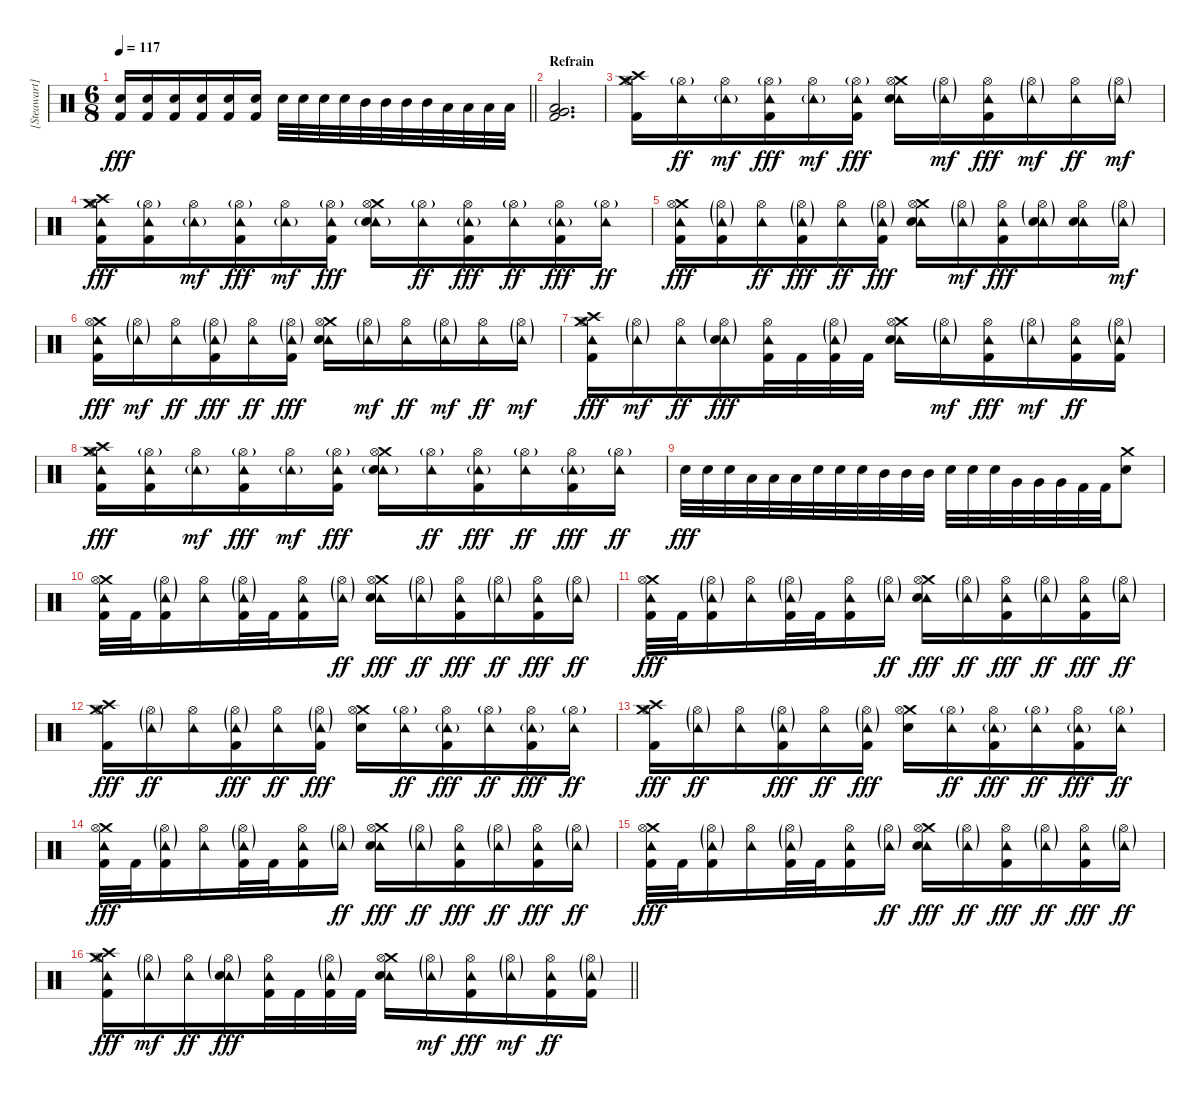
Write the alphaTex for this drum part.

\track ("[Steawart] Drums" "[Steawart]") {instrument percussion}
\staff {score}
\articulation defaults
\ts (6 8)
\tempo 117
\clef neutral
\barLineRight lightlight
\ks c
("Electric Snare (hit)" "Kick (hit) 2").16{dy fff} ("Electric Snare (hit)" "Kick (hit) 2").16 ("Electric Snare (hit)" "Kick (hit) 2").16 ("Electric Snare (hit)" "Kick (hit) 2").16 ("Electric Snare (hit)" "Kick (hit) 2").16 ("Electric Snare (hit)" "Kick (hit) 2").16 "Electric Snare (hit)".32 "Electric Snare (hit)".32 "Electric Snare (hit)".32 "Electric Snare (hit)".32 "Mid Tom (hit)".32 "Mid Tom (hit)".32 "Mid Tom (hit)".32 "Mid Tom (hit)".32 "Low Tom (hit)".32 "Low Tom (hit)".32 "Low Tom (hit)".32 "Low Tom (hit)".32 |
\section ("" "Refrain ")
("Low Tom (hit)" "Very Low Tom (hit)" "Kick (hit) 2").2{d} |
("Crash medium (hit)" "Hi-Hat (open)" "Crash high (hit)" "Kick (hit) 2").16 ("Hi-Hat (open)"{g} "Tambourine (hit)").16{dy ff} ("Hi-Hat (open)" "Tambourine (hit)"{g}).16{dy mf} ("Hi-Hat (open)"{g} "Tambourine (hit)" "Kick (hit) 2").16{dy fff} ("Hi-Hat (open)" "Tambourine (hit)"{g}).16{dy mf} ("Hi-Hat (open)"{g} "Tambourine (hit)" "Kick (hit) 2").16{dy fff} ("Crash medium (hit)" "Hi-Hat (open)" "Tambourine (hit)" "Electric Snare (hit)").16 ("Hi-Hat (open)"{g} "Tambourine (hit)"{g}).16{dy mf} ("Hi-Hat (open)" "Tambourine (hit)" "Kick (hit) 2").16{dy fff} ("Hi-Hat (open)"{g} "Tambourine (hit)"{g}).16{dy mf} ("Hi-Hat (open)" "Tambourine (hit)").16{dy ff} ("Hi-Hat (open)"{g} "Tambourine (hit)"{g}).16{dy mf} |
("Crash medium (hit)" "Hi-Hat (open)" "Crash high (hit)" "Tambourine (hit)" "Kick (hit) 2").16{dy fff} ("Hi-Hat (open)"{g} "Tambourine (hit)" "Kick (hit) 2").16 ("Hi-Hat (open)" "Tambourine (hit)"{g}).16{dy mf} ("Hi-Hat (open)"{g} "Tambourine (hit)" "Kick (hit) 2").16{dy fff} ("Hi-Hat (open)" "Tambourine (hit)"{g}).16{dy mf} ("Hi-Hat (open)"{g} "Tambourine (hit)" "Kick (hit) 2").16{dy fff} ("Crash medium (hit)" "Hi-Hat (open)" "Tambourine (hit)"{g} "Electric Snare (hit)").16 ("Hi-Hat (open)"{g} "Tambourine (hit)").16{dy ff} ("Hi-Hat (open)" "Tambourine (hit)"{g} "Kick (hit) 2").16{dy fff} ("Hi-Hat (open)"{g} "Tambourine (hit)").16{dy ff} ("Hi-Hat (open)" "Tambourine (hit)"{g} "Kick (hit) 2").16{dy fff} ("Hi-Hat (open)"{g} "Tambourine (hit)").16{dy ff} |
("Crash medium (hit)" "Hi-Hat (open)" "Tambourine (hit)" "Kick (hit) 2").16{dy fff} ("Hi-Hat (open)"{g} "Tambourine (hit)"{g} "Kick (hit) 2").16 ("Hi-Hat (open)" "Tambourine (hit)").16{dy ff} ("Hi-Hat (open)"{g} "Tambourine (hit)"{g} "Kick (hit) 2").16{dy fff} ("Hi-Hat (open)" "Tambourine (hit)").16{dy ff} ("Hi-Hat (open)"{g} "Tambourine (hit)"{g} "Kick (hit) 2").16{dy fff} ("Crash medium (hit)" "Hi-Hat (open)" "Tambourine (hit)" "Electric Snare (hit)").16 ("Hi-Hat (open)"{g} "Tambourine (hit)"{g}).16{dy mf} ("Hi-Hat (open)" "Tambourine (hit)" "Kick (hit) 2").16{dy fff} ("Hi-Hat (open)"{g} "Tambourine (hit)"{g} "Electric Snare (hit)").16 ("Hi-Hat (open)" "Tambourine (hit)" "Electric Snare (hit)").16 ("Hi-Hat (open)"{g} "Tambourine (hit)"{g}).16{dy mf} |
("Crash medium (hit)" "Hi-Hat (open)" "Tambourine (hit)" "Kick (hit) 2").16{dy fff} ("Hi-Hat (open)"{g} "Tambourine (hit)"{g}).16{dy mf} ("Hi-Hat (open)" "Tambourine (hit)").16{dy ff} ("Hi-Hat (open)"{g} "Tambourine (hit)"{g} "Kick (hit) 2").16{dy fff} ("Hi-Hat (open)" "Tambourine (hit)").16{dy ff} ("Hi-Hat (open)"{g} "Tambourine (hit)"{g} "Kick (hit) 2").16{dy fff} ("Crash medium (hit)" "Hi-Hat (open)" "Tambourine (hit)" "Electric Snare (hit)").16 ("Hi-Hat (open)"{g} "Tambourine (hit)"{g}).16{dy mf} ("Hi-Hat (open)" "Tambourine (hit)").16{dy ff} ("Hi-Hat (open)"{g} "Tambourine (hit)"{g}).16{dy mf} ("Hi-Hat (open)" "Tambourine (hit)").16{dy ff} ("Hi-Hat (open)"{g} "Tambourine (hit)"{g}).16{dy mf} |
("Crash medium (hit)" "Hi-Hat (open)" "Crash high (hit)" "Tambourine (hit)" "Kick (hit) 2").16{dy fff} ("Hi-Hat (open)"{g} "Tambourine (hit)"{g}).16{dy mf} ("Hi-Hat (open)" "Tambourine (hit)").16{dy ff} ("Hi-Hat (open)"{g} "Tambourine (hit)"{g} "Electric Snare (hit)").16{dy fff} ("Hi-Hat (open)" "Tambourine (hit)" "Kick (hit) 2").32 "Kick (hit) 2".32 ("Hi-Hat (open)"{g} "Tambourine (hit)"{g} "Kick (hit) 2").32 "Kick (hit) 2".32 ("Crash medium (hit)" "Hi-Hat (open)" "Tambourine (hit)" "Electric Snare (hit)").16 ("Hi-Hat (open)"{g} "Tambourine (hit)"{g}).16{dy mf} ("Hi-Hat (open)" "Tambourine (hit)" "Kick (hit) 2").16{dy fff} ("Hi-Hat (open)"{g} "Tambourine (hit)"{g}).16{dy mf} ("Hi-Hat (open)" "Tambourine (hit)" "Kick (hit) 2").16{dy ff} ("Hi-Hat (open)"{g} "Tambourine (hit)"{g} "Kick (hit) 2").16 |
("Crash medium (hit)" "Hi-Hat (open)" "Crash high (hit)" "Tambourine (hit)" "Kick (hit) 2").16{dy fff} ("Hi-Hat (open)"{g} "Tambourine (hit)" "Kick (hit) 2").16 ("Hi-Hat (open)" "Tambourine (hit)"{g}).16{dy mf} ("Hi-Hat (open)"{g} "Tambourine (hit)" "Kick (hit) 2").16{dy fff} ("Hi-Hat (open)" "Tambourine (hit)"{g}).16{dy mf} ("Hi-Hat (open)"{g} "Tambourine (hit)" "Kick (hit) 2").16{dy fff} ("Crash medium (hit)" "Hi-Hat (open)" "Tambourine (hit)"{g} "Electric Snare (hit)").16 ("Hi-Hat (open)"{g} "Tambourine (hit)").16{dy ff} ("Hi-Hat (open)" "Tambourine (hit)"{g} "Kick (hit) 2").16{dy fff} ("Hi-Hat (open)"{g} "Tambourine (hit)").16{dy ff} ("Hi-Hat (open)" "Tambourine (hit)"{g} "Kick (hit) 2").16{dy fff} ("Hi-Hat (open)"{g} "Tambourine (hit)").16{dy ff} |
"Electric Snare (hit)".32{dy fff} "Electric Snare (hit)".32 "Electric Snare (hit)".32 "Low Tom (hit)".32 "Low Tom (hit)".32 "Low Tom (hit)".32 "Electric Snare (hit)".32 "Electric Snare (hit)".32 "Electric Snare (hit)".32 "Mid Tom (hit)".32 "Mid Tom (hit)".32 "Mid Tom (hit)".32 "Electric Snare (hit)".32 "Electric Snare (hit)".32 "Electric Snare (hit)".32 "Very Low Tom (hit)".32 "Very Low Tom (hit)".32 "Very Low Tom (hit)".32 "Kick (hit) 2".32 "Kick (hit) 2".32 ("Crash medium (hit)" "Electric Snare (hit)").8 |
("Crash medium (hit)" "Hi-Hat (open)" "Tambourine (hit)" "Kick (hit) 2").32 "Kick (hit) 2".32 ("Hi-Hat (open)"{g} "Tambourine (hit)"{g} "Kick (hit) 2").16 ("Hi-Hat (open)" "Tambourine (hit)").16 ("Hi-Hat (open)"{g} "Tambourine (hit)"{g} "Kick (hit) 2").32 "Kick (hit) 2".32 ("Hi-Hat (open)" "Tambourine (hit)" "Kick (hit) 2").16 ("Hi-Hat (open)"{g} "Tambourine (hit)"{g}).16{dy ff} ("Crash medium (hit)" "Hi-Hat (open)" "Tambourine (hit)" "Electric Snare (hit)").16{dy fff} ("Hi-Hat (open)"{g} "Tambourine (hit)"{g}).16{dy ff} ("Hi-Hat (open)" "Tambourine (hit)" "Kick (hit) 2").16{dy fff} ("Hi-Hat (open)"{g} "Tambourine (hit)"{g}).16{dy ff} ("Hi-Hat (open)" "Tambourine (hit)" "Kick (hit) 2").16{dy fff} ("Hi-Hat (open)"{g} "Tambourine (hit)"{g}).16{dy ff} |
("Crash medium (hit)" "Hi-Hat (open)" "Tambourine (hit)" "Kick (hit) 2").32{dy fff} "Kick (hit) 2".32 ("Hi-Hat (open)"{g} "Tambourine (hit)"{g} "Kick (hit) 2").16 ("Hi-Hat (open)" "Tambourine (hit)").16 ("Hi-Hat (open)"{g} "Tambourine (hit)"{g} "Kick (hit) 2").32 "Kick (hit) 2".32 ("Hi-Hat (open)" "Tambourine (hit)" "Kick (hit) 2").16 ("Hi-Hat (open)"{g} "Tambourine (hit)"{g}).16{dy ff} ("Crash medium (hit)" "Hi-Hat (open)" "Tambourine (hit)" "Electric Snare (hit)").16{dy fff} ("Hi-Hat (open)"{g} "Tambourine (hit)"{g}).16{dy ff} ("Hi-Hat (open)" "Tambourine (hit)" "Kick (hit) 2").16{dy fff} ("Hi-Hat (open)"{g} "Tambourine (hit)"{g}).16{dy ff} ("Hi-Hat (open)" "Tambourine (hit)" "Kick (hit) 2").16{dy fff} ("Hi-Hat (open)"{g} "Tambourine (hit)"{g}).16{dy ff} |
("Crash medium (hit)" "Hi-Hat (open)" "Crash high (hit)" "Kick (hit) 2").16{dy fff} ("Hi-Hat (open)"{g} "Tambourine (hit)"{g}).16{dy ff} ("Hi-Hat (open)" "Tambourine (hit)").16 ("Hi-Hat (open)"{g} "Tambourine (hit)"{g} "Kick (hit) 2").16{dy fff} ("Hi-Hat (open)" "Tambourine (hit)").16{dy ff} ("Hi-Hat (open)"{g} "Tambourine (hit)"{g} "Kick (hit) 2").16{dy fff} ("Crash medium (hit)" "Hi-Hat (open)" "Electric Snare (hit)").16 ("Hi-Hat (open)"{g} "Tambourine (hit)").16{dy ff} ("Hi-Hat (open)" "Tambourine (hit)"{g} "Kick (hit) 2").16{dy fff} ("Hi-Hat (open)"{g} "Tambourine (hit)").16{dy ff} ("Hi-Hat (open)" "Tambourine (hit)"{g} "Kick (hit) 2").16{dy fff} ("Hi-Hat (open)"{g} "Tambourine (hit)").16{dy ff} |
("Crash medium (hit)" "Hi-Hat (open)" "Crash high (hit)" "Kick (hit) 2").16{dy fff} ("Hi-Hat (open)"{g} "Tambourine (hit)"{g}).16{dy ff} ("Hi-Hat (open)" "Tambourine (hit)").16 ("Hi-Hat (open)"{g} "Tambourine (hit)"{g} "Kick (hit) 2").16{dy fff} ("Hi-Hat (open)" "Tambourine (hit)").16{dy ff} ("Hi-Hat (open)"{g} "Tambourine (hit)"{g} "Kick (hit) 2").16{dy fff} ("Crash medium (hit)" "Hi-Hat (open)" "Electric Snare (hit)").16 ("Hi-Hat (open)"{g} "Tambourine (hit)").16{dy ff} ("Hi-Hat (open)" "Tambourine (hit)"{g} "Kick (hit) 2").16{dy fff} ("Hi-Hat (open)"{g} "Tambourine (hit)").16{dy ff} ("Hi-Hat (open)" "Tambourine (hit)"{g} "Kick (hit) 2").16{dy fff} ("Hi-Hat (open)"{g} "Tambourine (hit)").16{dy ff} |
("Crash medium (hit)" "Hi-Hat (open)" "Tambourine (hit)" "Kick (hit) 2").32{dy fff} "Kick (hit) 2".32 ("Hi-Hat (open)"{g} "Tambourine (hit)"{g} "Kick (hit) 2").16 ("Hi-Hat (open)" "Tambourine (hit)").16 ("Hi-Hat (open)"{g} "Tambourine (hit)"{g} "Kick (hit) 2").32 "Kick (hit) 2".32 ("Hi-Hat (open)" "Tambourine (hit)" "Kick (hit) 2").16 ("Hi-Hat (open)"{g} "Tambourine (hit)"{g}).16{dy ff} ("Crash medium (hit)" "Hi-Hat (open)" "Tambourine (hit)" "Electric Snare (hit)").16{dy fff} ("Hi-Hat (open)"{g} "Tambourine (hit)"{g}).16{dy ff} ("Hi-Hat (open)" "Tambourine (hit)" "Kick (hit) 2").16{dy fff} ("Hi-Hat (open)"{g} "Tambourine (hit)"{g}).16{dy ff} ("Hi-Hat (open)" "Tambourine (hit)" "Kick (hit) 2").16{dy fff} ("Hi-Hat (open)"{g} "Tambourine (hit)"{g}).16{dy ff} |
("Crash medium (hit)" "Hi-Hat (open)" "Tambourine (hit)" "Kick (hit) 2").32{dy fff} "Kick (hit) 2".32 ("Hi-Hat (open)"{g} "Tambourine (hit)"{g} "Kick (hit) 2").16 ("Hi-Hat (open)" "Tambourine (hit)").16 ("Hi-Hat (open)"{g} "Tambourine (hit)"{g} "Kick (hit) 2").32 "Kick (hit) 2".32 ("Hi-Hat (open)" "Tambourine (hit)" "Kick (hit) 2").16 ("Hi-Hat (open)"{g} "Tambourine (hit)"{g}).16{dy ff} ("Crash medium (hit)" "Hi-Hat (open)" "Tambourine (hit)" "Electric Snare (hit)").16{dy fff} ("Hi-Hat (open)"{g} "Tambourine (hit)"{g}).16{dy ff} ("Hi-Hat (open)" "Tambourine (hit)" "Kick (hit) 2").16{dy fff} ("Hi-Hat (open)"{g} "Tambourine (hit)"{g}).16{dy ff} ("Hi-Hat (open)" "Tambourine (hit)" "Kick (hit) 2").16{dy fff} ("Hi-Hat (open)"{g} "Tambourine (hit)"{g}).16{dy ff} |
\barLineRight lightlight
("Crash medium (hit)" "Hi-Hat (open)" "Crash high (hit)" "Tambourine (hit)" "Kick (hit) 2").16{dy fff} ("Hi-Hat (open)"{g} "Tambourine (hit)"{g}).16{dy mf} ("Hi-Hat (open)" "Tambourine (hit)").16{dy ff} ("Hi-Hat (open)"{g} "Tambourine (hit)"{g} "Electric Snare (hit)").16{dy fff} ("Hi-Hat (open)" "Tambourine (hit)" "Kick (hit) 2").32 "Kick (hit) 2".32 ("Hi-Hat (open)"{g} "Tambourine (hit)"{g} "Kick (hit) 2").32 "Kick (hit) 2".32 ("Crash medium (hit)" "Hi-Hat (open)" "Tambourine (hit)" "Electric Snare (hit)").16 ("Hi-Hat (open)"{g} "Tambourine (hit)"{g}).16{dy mf} ("Hi-Hat (open)" "Tambourine (hit)" "Kick (hit) 2").16{dy fff} ("Hi-Hat (open)"{g} "Tambourine (hit)"{g}).16{dy mf} ("Hi-Hat (open)" "Tambourine (hit)" "Kick (hit) 2").16{dy ff} ("Hi-Hat (open)"{g} "Tambourine (hit)"{g} "Kick (hit) 2").16
